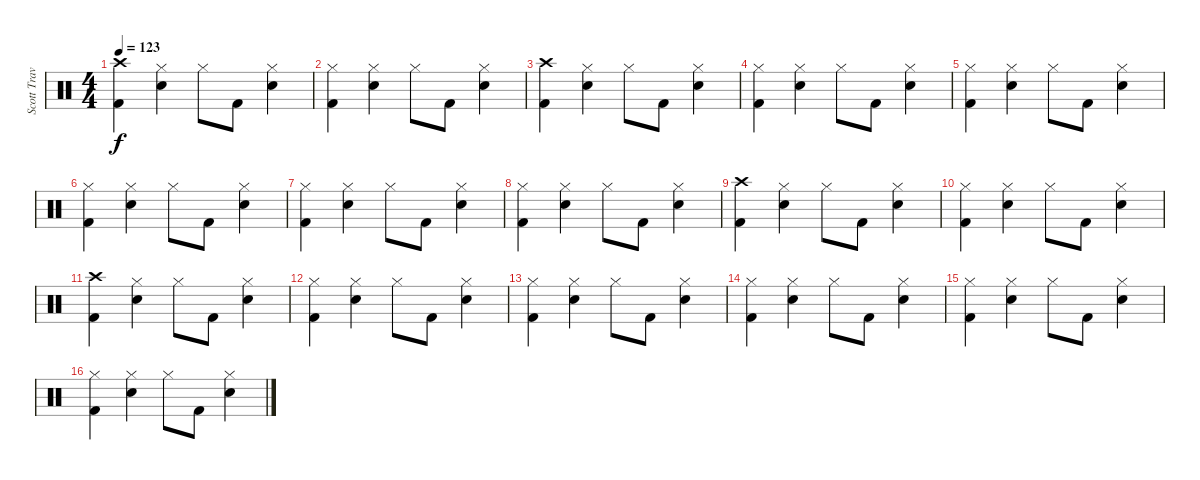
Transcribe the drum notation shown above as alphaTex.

\track ("Scott Travis" "Scott Trav") {instrument percussion}
\staff {score}
\articulation defaults
\ts (4 4)
\tempo 123
\clef neutral
\ks c
("Crash high (hit)" "Kick (hit) 2").4{dy f} ("Hi-Hat (closed)" "Snare (hit) 2").4 "Hi-Hat (closed)".8 "Kick (hit) 2".8 ("Hi-Hat (closed)" "Snare (hit) 2").4 |
("Hi-Hat (closed)" "Kick (hit) 2").4 ("Hi-Hat (closed)" "Snare (hit) 2").4 "Hi-Hat (closed)".8 "Kick (hit) 2".8 ("Hi-Hat (closed)" "Snare (hit) 2").4 |
("Crash high (hit)" "Kick (hit) 2").4 ("Hi-Hat (closed)" "Snare (hit) 2").4 "Hi-Hat (closed)".8 "Kick (hit) 2".8 ("Hi-Hat (closed)" "Snare (hit) 2").4 |
("Hi-Hat (closed)" "Kick (hit) 2").4 ("Hi-Hat (closed)" "Snare (hit) 2").4 "Hi-Hat (closed)".8 "Kick (hit) 2".8 ("Hi-Hat (closed)" "Snare (hit) 2").4 |
("Hi-Hat (closed)" "Kick (hit) 2").4 ("Hi-Hat (closed)" "Snare (hit) 2").4 "Hi-Hat (closed)".8 "Kick (hit) 2".8 ("Hi-Hat (closed)" "Snare (hit) 2").4 |
("Hi-Hat (closed)" "Kick (hit) 2").4 ("Hi-Hat (closed)" "Snare (hit) 2").4 "Hi-Hat (closed)".8 "Kick (hit) 2".8 ("Hi-Hat (closed)" "Snare (hit) 2").4 |
("Hi-Hat (closed)" "Kick (hit) 2").4 ("Hi-Hat (closed)" "Snare (hit) 2").4 "Hi-Hat (closed)".8 "Kick (hit) 2".8 ("Hi-Hat (closed)" "Snare (hit) 2").4 |
("Hi-Hat (closed)" "Kick (hit) 2").4 ("Hi-Hat (closed)" "Snare (hit) 2").4 "Hi-Hat (closed)".8 "Kick (hit) 2".8 ("Hi-Hat (closed)" "Snare (hit) 2").4 |
("Crash high (hit)" "Kick (hit) 2").4 ("Hi-Hat (closed)" "Snare (hit) 2").4 "Hi-Hat (closed)".8 "Kick (hit) 2".8 ("Hi-Hat (closed)" "Snare (hit) 2").4 |
("Hi-Hat (closed)" "Kick (hit) 2").4 ("Hi-Hat (closed)" "Snare (hit) 2").4 "Hi-Hat (closed)".8 "Kick (hit) 2".8 ("Hi-Hat (closed)" "Snare (hit) 2").4 |
("Crash high (hit)" "Kick (hit) 2").4 ("Hi-Hat (closed)" "Snare (hit) 2").4 "Hi-Hat (closed)".8 "Kick (hit) 2".8 ("Hi-Hat (closed)" "Snare (hit) 2").4 |
("Hi-Hat (closed)" "Kick (hit) 2").4 ("Hi-Hat (closed)" "Snare (hit) 2").4 "Hi-Hat (closed)".8 "Kick (hit) 2".8 ("Hi-Hat (closed)" "Snare (hit) 2").4 |
("Hi-Hat (closed)" "Kick (hit) 2").4 ("Hi-Hat (closed)" "Snare (hit) 2").4 "Hi-Hat (closed)".8 "Kick (hit) 2".8 ("Hi-Hat (closed)" "Snare (hit) 2").4 |
("Hi-Hat (closed)" "Kick (hit) 2").4 ("Hi-Hat (closed)" "Snare (hit) 2").4 "Hi-Hat (closed)".8 "Kick (hit) 2".8 ("Hi-Hat (closed)" "Snare (hit) 2").4 |
("Hi-Hat (closed)" "Kick (hit) 2").4 ("Hi-Hat (closed)" "Snare (hit) 2").4 "Hi-Hat (closed)".8 "Kick (hit) 2".8 ("Hi-Hat (closed)" "Snare (hit) 2").4 |
("Hi-Hat (closed)" "Kick (hit) 2").4 ("Hi-Hat (closed)" "Snare (hit) 2").4 "Hi-Hat (closed)".8 "Kick (hit) 2".8 ("Hi-Hat (closed)" "Snare (hit) 2").4
